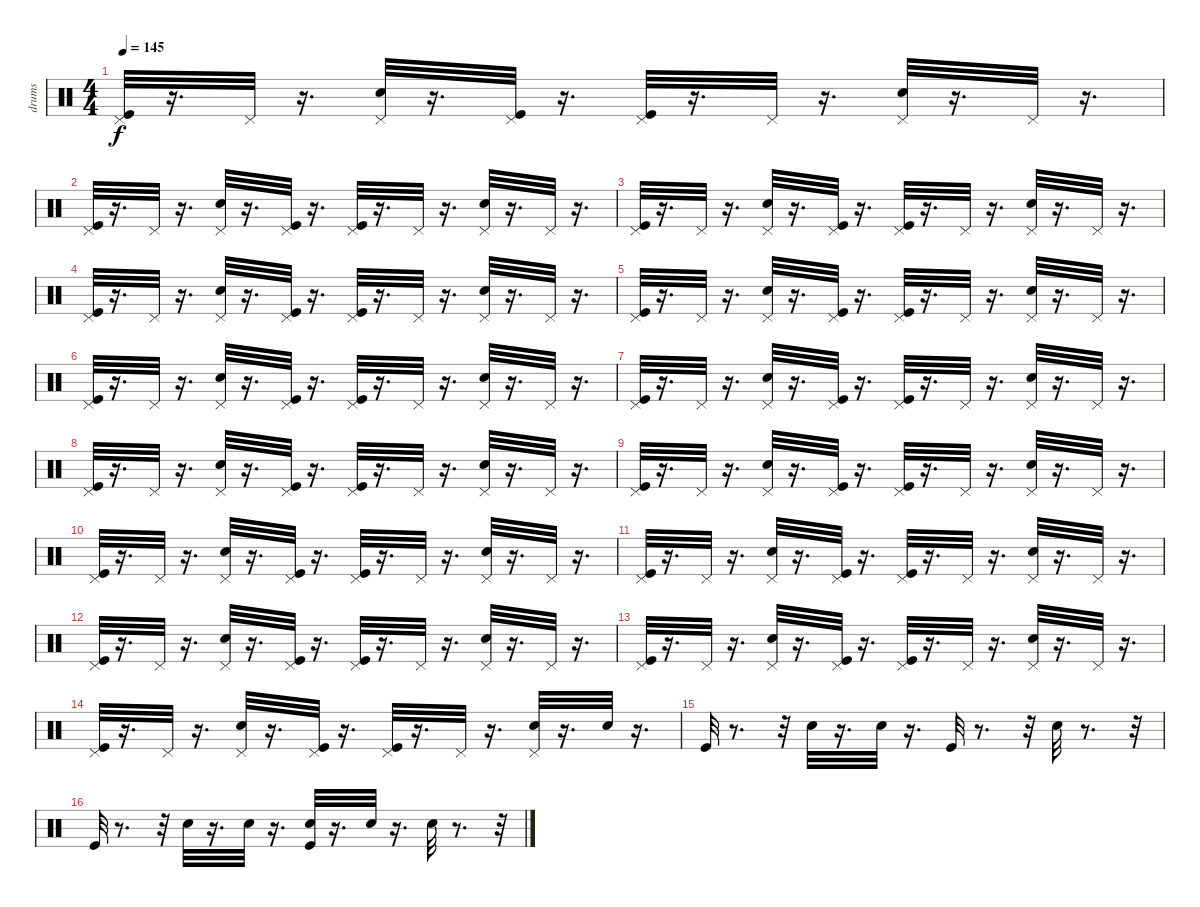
\track ("drums" "drums") {instrument percussion}
\staff {score}
\articulation defaults
\ts (4 4)
\tempo 145
\clef neutral
\ks c
("Pedal Hi-Hat (hit)" "Kick (hit)").32{dy f} r.16{d} "Pedal Hi-Hat (hit)".32 r.16{d} ("Pedal Hi-Hat (hit)" "Electric Snare (hit)").32 r.16{d} ("Pedal Hi-Hat (hit)" "Kick (hit)").32 r.16{d} ("Pedal Hi-Hat (hit)" "Kick (hit)").32 r.16{d} "Pedal Hi-Hat (hit)".32 r.16{d} ("Pedal Hi-Hat (hit)" "Electric Snare (hit)").32 r.16{d} "Pedal Hi-Hat (hit)".32 r.16{d} |
("Pedal Hi-Hat (hit)" "Kick (hit)").32 r.16{d} "Pedal Hi-Hat (hit)".32 r.16{d} ("Pedal Hi-Hat (hit)" "Electric Snare (hit)").32 r.16{d} ("Pedal Hi-Hat (hit)" "Kick (hit)").32 r.16{d} ("Pedal Hi-Hat (hit)" "Kick (hit)").32 r.16{d} "Pedal Hi-Hat (hit)".32 r.16{d} ("Pedal Hi-Hat (hit)" "Electric Snare (hit)").32 r.16{d} "Pedal Hi-Hat (hit)".32 r.16{d} |
("Pedal Hi-Hat (hit)" "Kick (hit)").32 r.16{d} "Pedal Hi-Hat (hit)".32 r.16{d} ("Pedal Hi-Hat (hit)" "Electric Snare (hit)").32 r.16{d} ("Pedal Hi-Hat (hit)" "Kick (hit)").32 r.16{d} ("Pedal Hi-Hat (hit)" "Kick (hit)").32 r.16{d} "Pedal Hi-Hat (hit)".32 r.16{d} ("Pedal Hi-Hat (hit)" "Electric Snare (hit)").32 r.16{d} "Pedal Hi-Hat (hit)".32 r.16{d} |
("Pedal Hi-Hat (hit)" "Kick (hit)").32 r.16{d} "Pedal Hi-Hat (hit)".32 r.16{d} ("Pedal Hi-Hat (hit)" "Electric Snare (hit)").32 r.16{d} ("Pedal Hi-Hat (hit)" "Kick (hit)").32 r.16{d} ("Pedal Hi-Hat (hit)" "Kick (hit)").32 r.16{d} "Pedal Hi-Hat (hit)".32 r.16{d} ("Pedal Hi-Hat (hit)" "Electric Snare (hit)").32 r.16{d} "Pedal Hi-Hat (hit)".32 r.16{d} |
("Pedal Hi-Hat (hit)" "Kick (hit)").32 r.16{d} "Pedal Hi-Hat (hit)".32 r.16{d} ("Pedal Hi-Hat (hit)" "Electric Snare (hit)").32 r.16{d} ("Pedal Hi-Hat (hit)" "Kick (hit)").32 r.16{d} ("Pedal Hi-Hat (hit)" "Kick (hit)").32 r.16{d} "Pedal Hi-Hat (hit)".32 r.16{d} ("Pedal Hi-Hat (hit)" "Electric Snare (hit)").32 r.16{d} "Pedal Hi-Hat (hit)".32 r.16{d} |
("Pedal Hi-Hat (hit)" "Kick (hit)").32 r.16{d} "Pedal Hi-Hat (hit)".32 r.16{d} ("Pedal Hi-Hat (hit)" "Electric Snare (hit)").32 r.16{d} ("Pedal Hi-Hat (hit)" "Kick (hit)").32 r.16{d} ("Pedal Hi-Hat (hit)" "Kick (hit)").32 r.16{d} "Pedal Hi-Hat (hit)".32 r.16{d} ("Pedal Hi-Hat (hit)" "Electric Snare (hit)").32 r.16{d} "Pedal Hi-Hat (hit)".32 r.16{d} |
("Pedal Hi-Hat (hit)" "Kick (hit)").32 r.16{d} "Pedal Hi-Hat (hit)".32 r.16{d} ("Pedal Hi-Hat (hit)" "Electric Snare (hit)").32 r.16{d} ("Pedal Hi-Hat (hit)" "Kick (hit)").32 r.16{d} ("Pedal Hi-Hat (hit)" "Kick (hit)").32 r.16{d} "Pedal Hi-Hat (hit)".32 r.16{d} ("Pedal Hi-Hat (hit)" "Electric Snare (hit)").32 r.16{d} "Pedal Hi-Hat (hit)".32 r.16{d} |
("Pedal Hi-Hat (hit)" "Kick (hit)").32 r.16{d} "Pedal Hi-Hat (hit)".32 r.16{d} ("Pedal Hi-Hat (hit)" "Electric Snare (hit)").32 r.16{d} ("Pedal Hi-Hat (hit)" "Kick (hit)").32 r.16{d} ("Pedal Hi-Hat (hit)" "Kick (hit)").32 r.16{d} "Pedal Hi-Hat (hit)".32 r.16{d} ("Pedal Hi-Hat (hit)" "Electric Snare (hit)").32 r.16{d} "Pedal Hi-Hat (hit)".32 r.16{d} |
("Pedal Hi-Hat (hit)" "Kick (hit)").32 r.16{d} "Pedal Hi-Hat (hit)".32 r.16{d} ("Pedal Hi-Hat (hit)" "Electric Snare (hit)").32 r.16{d} ("Pedal Hi-Hat (hit)" "Kick (hit)").32 r.16{d} ("Pedal Hi-Hat (hit)" "Kick (hit)").32 r.16{d} "Pedal Hi-Hat (hit)".32 r.16{d} ("Pedal Hi-Hat (hit)" "Electric Snare (hit)").32 r.16{d} "Pedal Hi-Hat (hit)".32 r.16{d} |
("Pedal Hi-Hat (hit)" "Kick (hit)").32 r.16{d} "Pedal Hi-Hat (hit)".32 r.16{d} ("Pedal Hi-Hat (hit)" "Electric Snare (hit)").32 r.16{d} ("Pedal Hi-Hat (hit)" "Kick (hit)").32 r.16{d} ("Pedal Hi-Hat (hit)" "Kick (hit)").32 r.16{d} "Pedal Hi-Hat (hit)".32 r.16{d} ("Pedal Hi-Hat (hit)" "Electric Snare (hit)").32 r.16{d} "Pedal Hi-Hat (hit)".32 r.16{d} |
("Pedal Hi-Hat (hit)" "Kick (hit)").32 r.16{d} "Pedal Hi-Hat (hit)".32 r.16{d} ("Pedal Hi-Hat (hit)" "Electric Snare (hit)").32 r.16{d} ("Pedal Hi-Hat (hit)" "Kick (hit)").32 r.16{d} ("Pedal Hi-Hat (hit)" "Kick (hit)").32 r.16{d} "Pedal Hi-Hat (hit)".32 r.16{d} ("Pedal Hi-Hat (hit)" "Electric Snare (hit)").32 r.16{d} "Pedal Hi-Hat (hit)".32 r.16{d} |
("Pedal Hi-Hat (hit)" "Kick (hit)").32 r.16{d} "Pedal Hi-Hat (hit)".32 r.16{d} ("Pedal Hi-Hat (hit)" "Electric Snare (hit)").32 r.16{d} ("Pedal Hi-Hat (hit)" "Kick (hit)").32 r.16{d} ("Pedal Hi-Hat (hit)" "Kick (hit)").32 r.16{d} "Pedal Hi-Hat (hit)".32 r.16{d} ("Pedal Hi-Hat (hit)" "Electric Snare (hit)").32 r.16{d} "Pedal Hi-Hat (hit)".32 r.16{d} |
("Pedal Hi-Hat (hit)" "Kick (hit)").32 r.16{d} "Pedal Hi-Hat (hit)".32 r.16{d} ("Pedal Hi-Hat (hit)" "Electric Snare (hit)").32 r.16{d} ("Pedal Hi-Hat (hit)" "Kick (hit)").32 r.16{d} ("Pedal Hi-Hat (hit)" "Kick (hit)").32 r.16{d} "Pedal Hi-Hat (hit)".32 r.16{d} ("Pedal Hi-Hat (hit)" "Electric Snare (hit)").32 r.16{d} "Pedal Hi-Hat (hit)".32 r.16{d} |
("Pedal Hi-Hat (hit)" "Kick (hit)").32 r.16{d} "Pedal Hi-Hat (hit)".32 r.16{d} ("Pedal Hi-Hat (hit)" "Electric Snare (hit)").32 r.16{d} ("Pedal Hi-Hat (hit)" "Kick (hit)").32 r.16{d} ("Pedal Hi-Hat (hit)" "Kick (hit)").32 r.16{d} "Pedal Hi-Hat (hit)".32 r.16{d} ("Pedal Hi-Hat (hit)" "Electric Snare (hit)").32 r.16{d} "Electric Snare (hit)".32 r.16{d} |
"Kick (hit)".32 r.8{d} r.32 "Electric Snare (hit)".32 r.16{d} "Electric Snare (hit)".32 r.16{d} "Kick (hit)".32 r.8{d} r.32 "Electric Snare (hit)".32 r.8{d} r.32 |
"Kick (hit)".32 r.8{d} r.32 "Electric Snare (hit)".32 r.16{d} "Electric Snare (hit)".32 r.16{d} ("Kick (hit)" "Hand Clap (hit)").32 r.16{d} "Hand Clap (hit)".32 r.16{d} "Electric Snare (hit)".32 r.8{d} r.32
